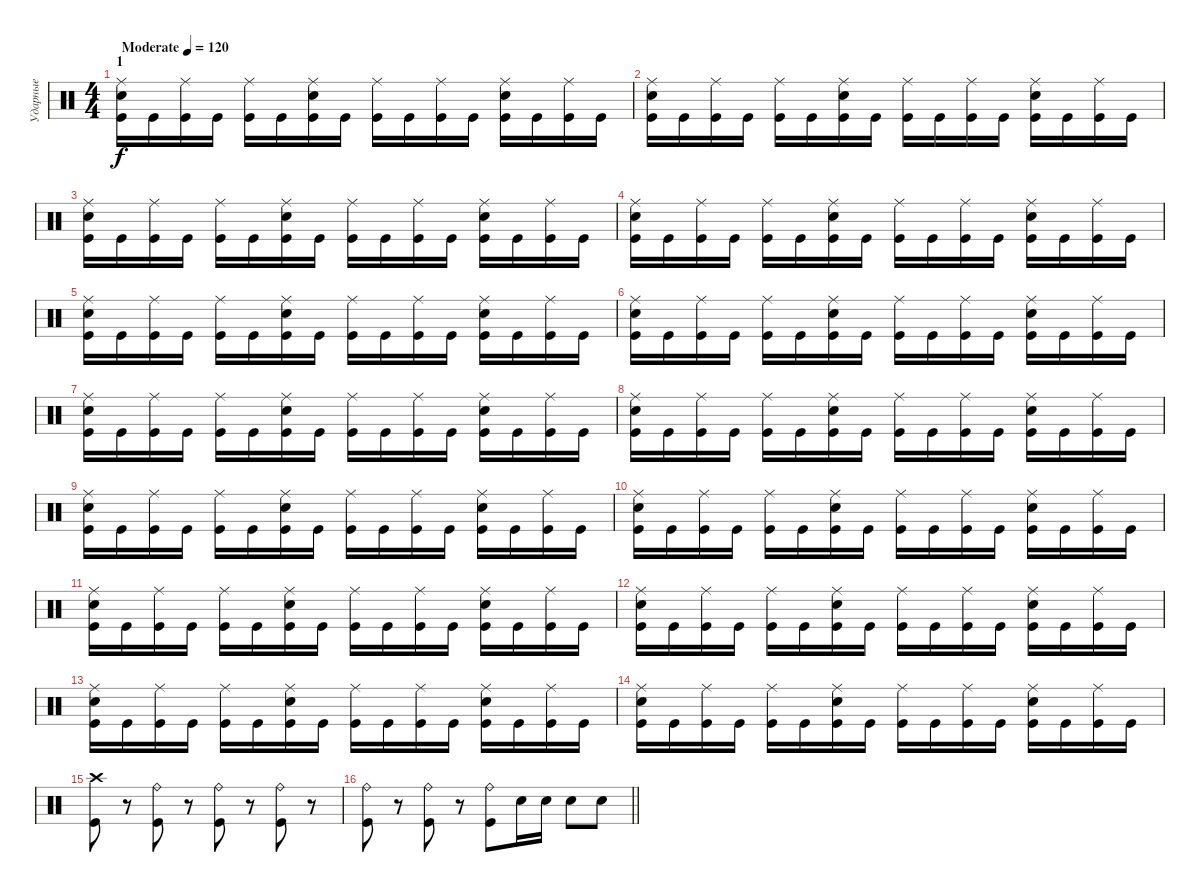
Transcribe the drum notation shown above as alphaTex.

\track ("Ударные" "Ударные") {instrument percussion}
\staff {score}
\articulation defaults
\ts (4 4)
\section ("" "1")
\tempo (120 "Moderate")
\tempo 140
\tempo (120 "Moderate")
\clef neutral
\ks c
("Ride (middle)" "Snare (hit) 2" "Kick (hit)").16{dy f} "Kick (hit)".16 ("Ride (middle)" "Kick (hit)").16 "Kick (hit)".16 ("Ride (middle)" "Kick (hit)").16 "Kick (hit)".16 ("Ride (middle)" "Snare (hit) 2" "Kick (hit)").16 "Kick (hit)".16 ("Ride (middle)" "Kick (hit)").16 "Kick (hit)".16 ("Ride (middle)" "Kick (hit)").16 "Kick (hit)".16 ("Ride (middle)" "Snare (hit) 2" "Kick (hit)").16 "Kick (hit)".16 ("Ride (middle)" "Kick (hit)").16 "Kick (hit)".16 |
("Ride (middle)" "Snare (hit) 2" "Kick (hit)").16 "Kick (hit)".16 ("Ride (middle)" "Kick (hit)").16 "Kick (hit)".16 ("Ride (middle)" "Kick (hit)").16 "Kick (hit)".16 ("Ride (middle)" "Snare (hit) 2" "Kick (hit)").16 "Kick (hit)".16 ("Ride (middle)" "Kick (hit)").16 "Kick (hit)".16 ("Ride (middle)" "Kick (hit)").16 "Kick (hit)".16 ("Ride (middle)" "Snare (hit) 2" "Kick (hit)").16 "Kick (hit)".16 ("Ride (middle)" "Kick (hit)").16 "Kick (hit)".16 |
("Ride (middle)" "Snare (hit) 2" "Kick (hit)").16 "Kick (hit)".16 ("Ride (middle)" "Kick (hit)").16 "Kick (hit)".16 ("Ride (middle)" "Kick (hit)").16 "Kick (hit)".16 ("Ride (middle)" "Snare (hit) 2" "Kick (hit)").16 "Kick (hit)".16 ("Ride (middle)" "Kick (hit)").16 "Kick (hit)".16 ("Ride (middle)" "Kick (hit)").16 "Kick (hit)".16 ("Ride (middle)" "Snare (hit) 2" "Kick (hit)").16 "Kick (hit)".16 ("Ride (middle)" "Kick (hit)").16 "Kick (hit)".16 |
("Ride (middle)" "Snare (hit) 2" "Kick (hit)").16 "Kick (hit)".16 ("Ride (middle)" "Kick (hit)").16 "Kick (hit)".16 ("Ride (middle)" "Kick (hit)").16 "Kick (hit)".16 ("Ride (middle)" "Snare (hit) 2" "Kick (hit)").16 "Kick (hit)".16 ("Ride (middle)" "Kick (hit)").16 "Kick (hit)".16 ("Ride (middle)" "Kick (hit)").16 "Kick (hit)".16 ("Ride (middle)" "Snare (hit) 2" "Kick (hit)").16 "Kick (hit)".16 ("Ride (middle)" "Kick (hit)").16 "Kick (hit)".16 |
("Ride (middle)" "Snare (hit) 2" "Kick (hit)").16 "Kick (hit)".16 ("Ride (middle)" "Kick (hit)").16 "Kick (hit)".16 ("Ride (middle)" "Kick (hit)").16 "Kick (hit)".16 ("Ride (middle)" "Snare (hit) 2" "Kick (hit)").16 "Kick (hit)".16 ("Ride (middle)" "Kick (hit)").16 "Kick (hit)".16 ("Ride (middle)" "Kick (hit)").16 "Kick (hit)".16 ("Ride (middle)" "Snare (hit) 2" "Kick (hit)").16 "Kick (hit)".16 ("Ride (middle)" "Kick (hit)").16 "Kick (hit)".16 |
("Ride (middle)" "Snare (hit) 2" "Kick (hit)").16 "Kick (hit)".16 ("Ride (middle)" "Kick (hit)").16 "Kick (hit)".16 ("Ride (middle)" "Kick (hit)").16 "Kick (hit)".16 ("Ride (middle)" "Snare (hit) 2" "Kick (hit)").16 "Kick (hit)".16 ("Ride (middle)" "Kick (hit)").16 "Kick (hit)".16 ("Ride (middle)" "Kick (hit)").16 "Kick (hit)".16 ("Ride (middle)" "Snare (hit) 2" "Kick (hit)").16 "Kick (hit)".16 ("Ride (middle)" "Kick (hit)").16 "Kick (hit)".16 |
("Ride (middle)" "Snare (hit) 2" "Kick (hit)").16 "Kick (hit)".16 ("Ride (middle)" "Kick (hit)").16 "Kick (hit)".16 ("Ride (middle)" "Kick (hit)").16 "Kick (hit)".16 ("Ride (middle)" "Snare (hit) 2" "Kick (hit)").16 "Kick (hit)".16 ("Ride (middle)" "Kick (hit)").16 "Kick (hit)".16 ("Ride (middle)" "Kick (hit)").16 "Kick (hit)".16 ("Ride (middle)" "Snare (hit) 2" "Kick (hit)").16 "Kick (hit)".16 ("Ride (middle)" "Kick (hit)").16 "Kick (hit)".16 |
("Ride (middle)" "Snare (hit) 2" "Kick (hit)").16 "Kick (hit)".16 ("Ride (middle)" "Kick (hit)").16 "Kick (hit)".16 ("Ride (middle)" "Kick (hit)").16 "Kick (hit)".16 ("Ride (middle)" "Snare (hit) 2" "Kick (hit)").16 "Kick (hit)".16 ("Ride (middle)" "Kick (hit)").16 "Kick (hit)".16 ("Ride (middle)" "Kick (hit)").16 "Kick (hit)".16 ("Ride (middle)" "Snare (hit) 2" "Kick (hit)").16 "Kick (hit)".16 ("Ride (middle)" "Kick (hit)").16 "Kick (hit)".16 |
("Ride (middle)" "Snare (hit) 2" "Kick (hit)").16 "Kick (hit)".16 ("Ride (middle)" "Kick (hit)").16 "Kick (hit)".16 ("Ride (middle)" "Kick (hit)").16 "Kick (hit)".16 ("Ride (middle)" "Snare (hit) 2" "Kick (hit)").16 "Kick (hit)".16 ("Ride (middle)" "Kick (hit)").16 "Kick (hit)".16 ("Ride (middle)" "Kick (hit)").16 "Kick (hit)".16 ("Ride (middle)" "Snare (hit) 2" "Kick (hit)").16 "Kick (hit)".16 ("Ride (middle)" "Kick (hit)").16 "Kick (hit)".16 |
("Ride (middle)" "Snare (hit) 2" "Kick (hit)").16 "Kick (hit)".16 ("Ride (middle)" "Kick (hit)").16 "Kick (hit)".16 ("Ride (middle)" "Kick (hit)").16 "Kick (hit)".16 ("Ride (middle)" "Snare (hit) 2" "Kick (hit)").16 "Kick (hit)".16 ("Ride (middle)" "Kick (hit)").16 "Kick (hit)".16 ("Ride (middle)" "Kick (hit)").16 "Kick (hit)".16 ("Ride (middle)" "Snare (hit) 2" "Kick (hit)").16 "Kick (hit)".16 ("Ride (middle)" "Kick (hit)").16 "Kick (hit)".16 |
("Ride (middle)" "Snare (hit) 2" "Kick (hit)").16 "Kick (hit)".16 ("Ride (middle)" "Kick (hit)").16 "Kick (hit)".16 ("Ride (middle)" "Kick (hit)").16 "Kick (hit)".16 ("Ride (middle)" "Snare (hit) 2" "Kick (hit)").16 "Kick (hit)".16 ("Ride (middle)" "Kick (hit)").16 "Kick (hit)".16 ("Ride (middle)" "Kick (hit)").16 "Kick (hit)".16 ("Ride (middle)" "Snare (hit) 2" "Kick (hit)").16 "Kick (hit)".16 ("Ride (middle)" "Kick (hit)").16 "Kick (hit)".16 |
("Ride (middle)" "Snare (hit) 2" "Kick (hit)").16 "Kick (hit)".16 ("Ride (middle)" "Kick (hit)").16 "Kick (hit)".16 ("Ride (middle)" "Kick (hit)").16 "Kick (hit)".16 ("Ride (middle)" "Snare (hit) 2" "Kick (hit)").16 "Kick (hit)".16 ("Ride (middle)" "Kick (hit)").16 "Kick (hit)".16 ("Ride (middle)" "Kick (hit)").16 "Kick (hit)".16 ("Ride (middle)" "Snare (hit) 2" "Kick (hit)").16 "Kick (hit)".16 ("Ride (middle)" "Kick (hit)").16 "Kick (hit)".16 |
("Ride (middle)" "Snare (hit) 2" "Kick (hit)").16 "Kick (hit)".16 ("Ride (middle)" "Kick (hit)").16 "Kick (hit)".16 ("Ride (middle)" "Kick (hit)").16 "Kick (hit)".16 ("Ride (middle)" "Snare (hit) 2" "Kick (hit)").16 "Kick (hit)".16 ("Ride (middle)" "Kick (hit)").16 "Kick (hit)".16 ("Ride (middle)" "Kick (hit)").16 "Kick (hit)".16 ("Ride (middle)" "Snare (hit) 2" "Kick (hit)").16 "Kick (hit)".16 ("Ride (middle)" "Kick (hit)").16 "Kick (hit)".16 |
("Ride (middle)" "Snare (hit) 2" "Kick (hit)").16 "Kick (hit)".16 ("Ride (middle)" "Kick (hit)").16 "Kick (hit)".16 ("Ride (middle)" "Kick (hit)").16 "Kick (hit)".16 ("Ride (middle)" "Snare (hit) 2" "Kick (hit)").16 "Kick (hit)".16 ("Ride (middle)" "Kick (hit)").16 "Kick (hit)".16 ("Ride (middle)" "Kick (hit)").16 "Kick (hit)".16 ("Ride (middle)" "Snare (hit) 2" "Kick (hit)").16 "Kick (hit)".16 ("Ride (middle)" "Kick (hit)").16 "Kick (hit)".16 |
("Crash high (hit)" "Kick (hit)").8 r.8 ("Ride (bell)" "Kick (hit)").8 r.8 ("Ride (bell)" "Kick (hit)").8 r.8 ("Ride (bell)" "Kick (hit)").8 r.8 |
\barLineRight lightlight
("Ride (bell)" "Kick (hit)").8 r.8 ("Ride (bell)" "Kick (hit)").8 r.8 ("Ride (bell)" "Kick (hit)").8 "Snare (hit) 2".16 "Snare (hit) 2".16 "Snare (hit) 2".8 "Snare (hit) 2".8
